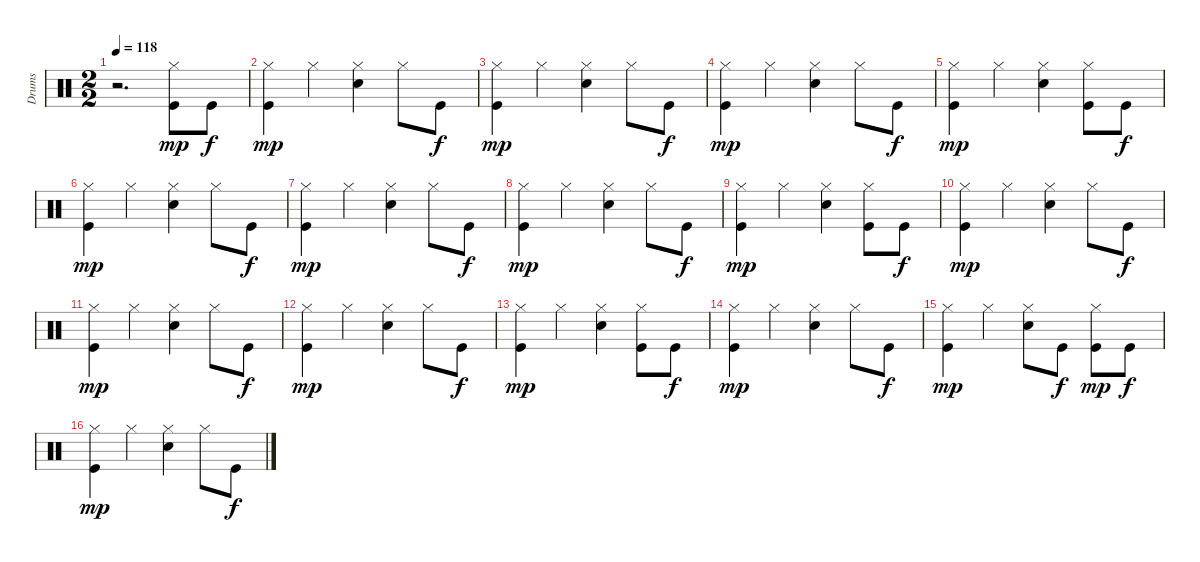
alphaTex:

\track ("Drums" "Drums") {instrument percussion}
\staff {score}
\articulation defaults
\ts (2 2)
\tempo 118
\clef neutral
\ks c
r.2{d dy mp} ("Kick (hit)" "Hi-Hat (closed)").8 "Kick (hit)".8{dy f} |
("Kick (hit)" "Hi-Hat (closed)").4{dy mp} "Hi-Hat (closed)".4 ("Snare (hit) 2" "Hi-Hat (closed)").4 "Hi-Hat (closed)".8 "Kick (hit)".8{dy f} |
("Kick (hit)" "Hi-Hat (closed)").4{dy mp} "Hi-Hat (closed)".4 ("Snare (hit) 2" "Hi-Hat (closed)").4 "Hi-Hat (closed)".8 "Kick (hit)".8{dy f} |
("Kick (hit)" "Hi-Hat (closed)").4{dy mp} "Hi-Hat (closed)".4 ("Snare (hit) 2" "Hi-Hat (closed)").4 "Hi-Hat (closed)".8 "Kick (hit)".8{dy f} |
("Kick (hit)" "Hi-Hat (closed)").4{dy mp} "Hi-Hat (closed)".4 ("Snare (hit) 2" "Hi-Hat (closed)").4 ("Kick (hit)" "Hi-Hat (closed)").8 "Kick (hit)".8{dy f} |
("Kick (hit)" "Hi-Hat (closed)").4{dy mp} "Hi-Hat (closed)".4 ("Snare (hit) 2" "Hi-Hat (closed)").4 "Hi-Hat (closed)".8 "Kick (hit)".8{dy f} |
("Kick (hit)" "Hi-Hat (closed)").4{dy mp} "Hi-Hat (closed)".4 ("Snare (hit) 2" "Hi-Hat (closed)").4 "Hi-Hat (closed)".8 "Kick (hit)".8{dy f} |
("Kick (hit)" "Hi-Hat (closed)").4{dy mp} "Hi-Hat (closed)".4 ("Snare (hit) 2" "Hi-Hat (closed)").4 "Hi-Hat (closed)".8 "Kick (hit)".8{dy f} |
("Kick (hit)" "Hi-Hat (closed)").4{dy mp} "Hi-Hat (closed)".4 ("Snare (hit) 2" "Hi-Hat (closed)").4 ("Kick (hit)" "Hi-Hat (closed)").8 "Kick (hit)".8{dy f} |
("Kick (hit)" "Hi-Hat (closed)").4{dy mp} "Hi-Hat (closed)".4 ("Snare (hit) 2" "Hi-Hat (closed)").4 "Hi-Hat (closed)".8 "Kick (hit)".8{dy f} |
("Kick (hit)" "Hi-Hat (closed)").4{dy mp} "Hi-Hat (closed)".4 ("Snare (hit) 2" "Hi-Hat (closed)").4 "Hi-Hat (closed)".8 "Kick (hit)".8{dy f} |
("Kick (hit)" "Hi-Hat (closed)").4{dy mp} "Hi-Hat (closed)".4 ("Snare (hit) 2" "Hi-Hat (closed)").4 "Hi-Hat (closed)".8 "Kick (hit)".8{dy f} |
("Kick (hit)" "Hi-Hat (closed)").4{dy mp} "Hi-Hat (closed)".4 ("Snare (hit) 2" "Hi-Hat (closed)").4 ("Kick (hit)" "Hi-Hat (closed)").8 "Kick (hit)".8{dy f} |
("Kick (hit)" "Hi-Hat (closed)").4{dy mp} "Hi-Hat (closed)".4 ("Snare (hit) 2" "Hi-Hat (closed)").4 "Hi-Hat (closed)".8 "Kick (hit)".8{dy f} |
("Kick (hit)" "Hi-Hat (closed)").4{dy mp} "Hi-Hat (closed)".4 ("Snare (hit) 2" "Hi-Hat (closed)").8 "Kick (hit)".8{dy f} ("Kick (hit)" "Hi-Hat (closed)").8{dy mp} "Kick (hit)".8{dy f} |
("Kick (hit)" "Hi-Hat (closed)").4{dy mp} "Hi-Hat (closed)".4 ("Snare (hit) 2" "Hi-Hat (closed)").4 "Hi-Hat (closed)".8 "Kick (hit)".8{dy f}
